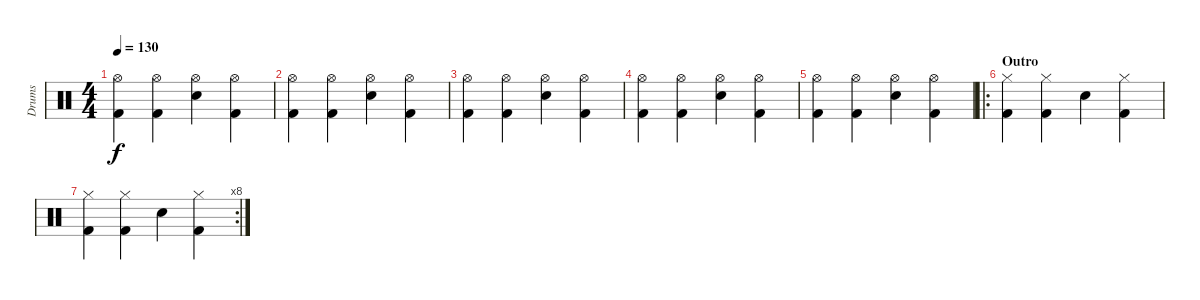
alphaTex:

\track ("Drums" "Drums") {instrument percussion}
\staff {score}
\articulation defaults
\ts (4 4)
\tempo 130
\clef neutral
\ks c
("Kick (hit) 2" "Hi-Hat (open)").4{dy f} ("Kick (hit) 2" "Hi-Hat (open)").4 ("Electric Snare (hit)" "Hi-Hat (open)").4 ("Kick (hit) 2" "Hi-Hat (open)").4 |
("Kick (hit) 2" "Hi-Hat (open)").4 ("Kick (hit) 2" "Hi-Hat (open)").4 ("Electric Snare (hit)" "Hi-Hat (open)").4 ("Kick (hit) 2" "Hi-Hat (open)").4 |
("Kick (hit) 2" "Hi-Hat (open)").4 ("Kick (hit) 2" "Hi-Hat (open)").4 ("Electric Snare (hit)" "Hi-Hat (open)").4 ("Kick (hit) 2" "Hi-Hat (open)").4 |
("Kick (hit) 2" "Hi-Hat (open)").4 ("Kick (hit) 2" "Hi-Hat (open)").4 ("Electric Snare (hit)" "Hi-Hat (open)").4 ("Kick (hit) 2" "Hi-Hat (open)").4 |
("Kick (hit) 2" "Hi-Hat (open)").4 ("Kick (hit) 2" "Hi-Hat (open)").4 ("Electric Snare (hit)" "Hi-Hat (open)").4 ("Kick (hit) 2" "Hi-Hat (open)").4 |
\ro
\section ("" "Outro")
("Kick (hit) 2" "Hi-Hat (closed)").4 ("Kick (hit) 2" "Hi-Hat (closed)").4 "Electric Snare (hit)".4 ("Kick (hit) 2" "Hi-Hat (closed)").4 |
\rc 8
("Kick (hit) 2" "Hi-Hat (closed)").4 ("Kick (hit) 2" "Hi-Hat (closed)").4 "Electric Snare (hit)".4 ("Kick (hit) 2" "Hi-Hat (closed)").4
